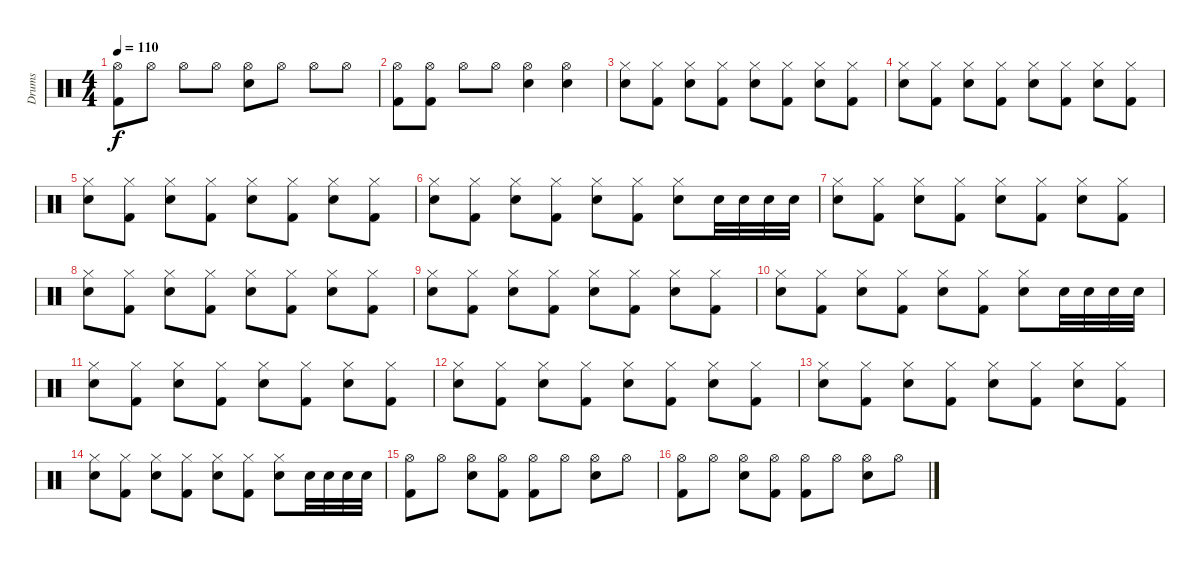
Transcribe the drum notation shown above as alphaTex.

\track ("Drums" "Drums") {instrument percussion}
\staff {score}
\articulation defaults
\ts (4 4)
\tempo 110
\clef neutral
\ks c
("Hi-Hat (open)" "Kick (hit) 2").8{dy f} "Hi-Hat (open)".8 "Hi-Hat (open)".8 "Hi-Hat (open)".8 ("Hi-Hat (open)" "Electric Snare (hit)").8 "Hi-Hat (open)".8 "Hi-Hat (open)".8 "Hi-Hat (open)".8 |
("Hi-Hat (open)" "Kick (hit) 2").8 ("Hi-Hat (open)" "Kick (hit) 2").8 "Hi-Hat (open)".8 "Hi-Hat (open)".8 ("Hi-Hat (open)" "Electric Snare (hit)").4 ("Hi-Hat (open)" "Electric Snare (hit)").4 |
("Hi-Hat (closed)" "Electric Snare (hit)").8 ("Hi-Hat (closed)" "Kick (hit) 2").8 ("Hi-Hat (closed)" "Electric Snare (hit)").8 ("Hi-Hat (closed)" "Kick (hit) 2").8 ("Hi-Hat (closed)" "Electric Snare (hit)").8 ("Hi-Hat (closed)" "Kick (hit) 2").8 ("Hi-Hat (closed)" "Electric Snare (hit)").8 ("Hi-Hat (closed)" "Kick (hit) 2").8 |
("Hi-Hat (closed)" "Electric Snare (hit)").8 ("Hi-Hat (closed)" "Kick (hit) 2").8 ("Hi-Hat (closed)" "Electric Snare (hit)").8 ("Hi-Hat (closed)" "Kick (hit) 2").8 ("Hi-Hat (closed)" "Electric Snare (hit)").8 ("Hi-Hat (closed)" "Kick (hit) 2").8 ("Hi-Hat (closed)" "Electric Snare (hit)").8 ("Hi-Hat (closed)" "Kick (hit) 2").8 |
("Hi-Hat (closed)" "Electric Snare (hit)").8 ("Hi-Hat (closed)" "Kick (hit) 2").8 ("Hi-Hat (closed)" "Electric Snare (hit)").8 ("Hi-Hat (closed)" "Kick (hit) 2").8 ("Hi-Hat (closed)" "Electric Snare (hit)").8 ("Hi-Hat (closed)" "Kick (hit) 2").8 ("Hi-Hat (closed)" "Electric Snare (hit)").8 ("Hi-Hat (closed)" "Kick (hit) 2").8 |
("Hi-Hat (closed)" "Electric Snare (hit)").8 ("Hi-Hat (closed)" "Kick (hit) 2").8 ("Hi-Hat (closed)" "Electric Snare (hit)").8 ("Hi-Hat (closed)" "Kick (hit) 2").8 ("Hi-Hat (closed)" "Electric Snare (hit)").8 ("Hi-Hat (closed)" "Kick (hit) 2").8 ("Hi-Hat (closed)" "Electric Snare (hit)").8 "Electric Snare (hit)".32 "Electric Snare (hit)".32 "Electric Snare (hit)".32 "Electric Snare (hit)".32 |
("Hi-Hat (closed)" "Electric Snare (hit)").8 ("Hi-Hat (closed)" "Kick (hit) 2").8 ("Hi-Hat (closed)" "Electric Snare (hit)").8 ("Hi-Hat (closed)" "Kick (hit) 2").8 ("Hi-Hat (closed)" "Electric Snare (hit)").8 ("Hi-Hat (closed)" "Kick (hit) 2").8 ("Hi-Hat (closed)" "Electric Snare (hit)").8 ("Hi-Hat (closed)" "Kick (hit) 2").8 |
("Hi-Hat (closed)" "Electric Snare (hit)").8 ("Hi-Hat (closed)" "Kick (hit) 2").8 ("Hi-Hat (closed)" "Electric Snare (hit)").8 ("Hi-Hat (closed)" "Kick (hit) 2").8 ("Hi-Hat (closed)" "Electric Snare (hit)").8 ("Hi-Hat (closed)" "Kick (hit) 2").8 ("Hi-Hat (closed)" "Electric Snare (hit)").8 ("Hi-Hat (closed)" "Kick (hit) 2").8 |
("Hi-Hat (closed)" "Electric Snare (hit)").8 ("Hi-Hat (closed)" "Kick (hit) 2").8 ("Hi-Hat (closed)" "Electric Snare (hit)").8 ("Hi-Hat (closed)" "Kick (hit) 2").8 ("Hi-Hat (closed)" "Electric Snare (hit)").8 ("Hi-Hat (closed)" "Kick (hit) 2").8 ("Hi-Hat (closed)" "Electric Snare (hit)").8 ("Hi-Hat (closed)" "Kick (hit) 2").8 |
("Hi-Hat (closed)" "Electric Snare (hit)").8 ("Hi-Hat (closed)" "Kick (hit) 2").8 ("Hi-Hat (closed)" "Electric Snare (hit)").8 ("Hi-Hat (closed)" "Kick (hit) 2").8 ("Hi-Hat (closed)" "Electric Snare (hit)").8 ("Hi-Hat (closed)" "Kick (hit) 2").8 ("Hi-Hat (closed)" "Electric Snare (hit)").8 "Electric Snare (hit)".32 "Electric Snare (hit)".32 "Electric Snare (hit)".32 "Electric Snare (hit)".32 |
("Hi-Hat (closed)" "Electric Snare (hit)").8 ("Hi-Hat (closed)" "Kick (hit) 2").8 ("Hi-Hat (closed)" "Electric Snare (hit)").8 ("Hi-Hat (closed)" "Kick (hit) 2").8 ("Hi-Hat (closed)" "Electric Snare (hit)").8 ("Hi-Hat (closed)" "Kick (hit) 2").8 ("Hi-Hat (closed)" "Electric Snare (hit)").8 ("Hi-Hat (closed)" "Kick (hit) 2").8 |
("Hi-Hat (closed)" "Electric Snare (hit)").8 ("Hi-Hat (closed)" "Kick (hit) 2").8 ("Hi-Hat (closed)" "Electric Snare (hit)").8 ("Hi-Hat (closed)" "Kick (hit) 2").8 ("Hi-Hat (closed)" "Electric Snare (hit)").8 ("Hi-Hat (closed)" "Kick (hit) 2").8 ("Hi-Hat (closed)" "Electric Snare (hit)").8 ("Hi-Hat (closed)" "Kick (hit) 2").8 |
("Hi-Hat (closed)" "Electric Snare (hit)").8 ("Hi-Hat (closed)" "Kick (hit) 2").8 ("Hi-Hat (closed)" "Electric Snare (hit)").8 ("Hi-Hat (closed)" "Kick (hit) 2").8 ("Hi-Hat (closed)" "Electric Snare (hit)").8 ("Hi-Hat (closed)" "Kick (hit) 2").8 ("Hi-Hat (closed)" "Electric Snare (hit)").8 ("Hi-Hat (closed)" "Kick (hit) 2").8 |
("Hi-Hat (closed)" "Electric Snare (hit)").8 ("Hi-Hat (closed)" "Kick (hit) 2").8 ("Hi-Hat (closed)" "Electric Snare (hit)").8 ("Hi-Hat (closed)" "Kick (hit) 2").8 ("Hi-Hat (closed)" "Electric Snare (hit)").8 ("Hi-Hat (closed)" "Kick (hit) 2").8 ("Hi-Hat (closed)" "Electric Snare (hit)").8 "Electric Snare (hit)".32 "Electric Snare (hit)".32 "Electric Snare (hit)".32 "Electric Snare (hit)".32 |
("Hi-Hat (open)" "Kick (hit) 2").8 "Hi-Hat (open)".8 ("Hi-Hat (open)" "Electric Snare (hit)").8 ("Hi-Hat (open)" "Kick (hit) 2").8 ("Hi-Hat (open)" "Kick (hit) 2").8 "Hi-Hat (open)".8 ("Hi-Hat (open)" "Electric Snare (hit)").8 "Hi-Hat (open)".8 |
("Hi-Hat (open)" "Kick (hit) 2").8 "Hi-Hat (open)".8 ("Hi-Hat (open)" "Electric Snare (hit)").8 ("Hi-Hat (open)" "Kick (hit) 2").8 ("Hi-Hat (open)" "Kick (hit) 2").8 "Hi-Hat (open)".8 ("Hi-Hat (open)" "Electric Snare (hit)").8 "Hi-Hat (open)".8
